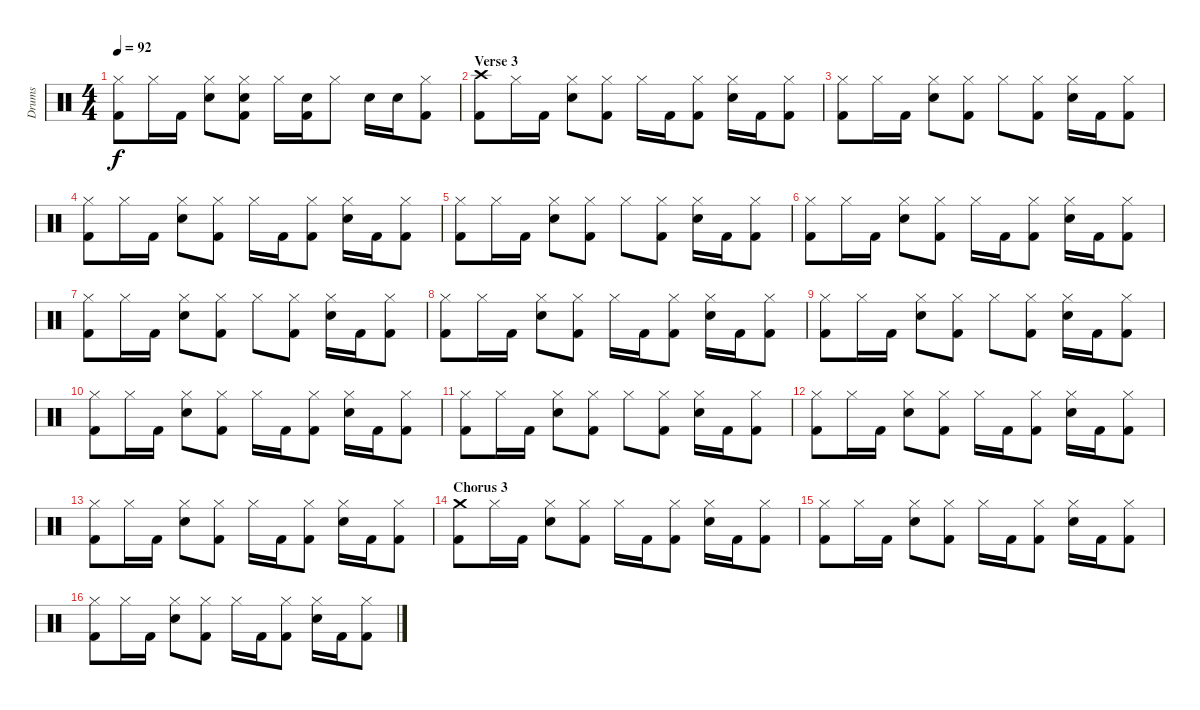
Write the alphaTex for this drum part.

\track ("Drums" "Drums") {instrument percussion}
\staff {score}
\articulation defaults
\ts (4 4)
\tempo 92
\clef neutral
\ks c
("Hi-Hat (closed)" "Kick (hit) 2").8{dy f} "Hi-Hat (closed)".16 "Kick (hit) 2".16 ("Hi-Hat (closed)" "Electric Snare (hit)").8 ("Hi-Hat (closed)" "Electric Snare (hit)" "Kick (hit) 2").8 "Hi-Hat (closed)".16 ("Electric Snare (hit)" "Kick (hit) 2").16 "Hi-Hat (closed)".8 "Electric Snare (hit)".16 "Electric Snare (hit)".16 ("Hi-Hat (closed)" "Kick (hit) 2").8 |
\section ("" "Verse 3")
("Crash high (hit)" "Kick (hit) 2").8 "Hi-Hat (closed)".16 "Kick (hit) 2".16 ("Hi-Hat (closed)" "Electric Snare (hit)").8 ("Hi-Hat (closed)" "Kick (hit) 2").8 "Hi-Hat (closed)".16 "Kick (hit) 2".16 ("Hi-Hat (closed)" "Kick (hit) 2").8 ("Hi-Hat (closed)" "Electric Snare (hit)").16 "Kick (hit) 2".16 ("Hi-Hat (closed)" "Kick (hit) 2").8 |
("Hi-Hat (closed)" "Kick (hit) 2").8 "Hi-Hat (closed)".16 "Kick (hit) 2".16 ("Hi-Hat (closed)" "Electric Snare (hit)").8 ("Hi-Hat (closed)" "Kick (hit) 2").8 "Hi-Hat (closed)".8 ("Hi-Hat (closed)" "Kick (hit) 2").8 ("Hi-Hat (closed)" "Electric Snare (hit)").16 "Kick (hit) 2".16 ("Hi-Hat (closed)" "Kick (hit) 2").8 |
("Hi-Hat (closed)" "Kick (hit) 2").8 "Hi-Hat (closed)".16 "Kick (hit) 2".16 ("Hi-Hat (closed)" "Electric Snare (hit)").8 ("Hi-Hat (closed)" "Kick (hit) 2").8 "Hi-Hat (closed)".16 "Kick (hit) 2".16 ("Hi-Hat (closed)" "Kick (hit) 2").8 ("Hi-Hat (closed)" "Electric Snare (hit)").16 "Kick (hit) 2".16 ("Hi-Hat (closed)" "Kick (hit) 2").8 |
("Hi-Hat (closed)" "Kick (hit) 2").8 "Hi-Hat (closed)".16 "Kick (hit) 2".16 ("Hi-Hat (closed)" "Electric Snare (hit)").8 ("Hi-Hat (closed)" "Kick (hit) 2").8 "Hi-Hat (closed)".8 ("Hi-Hat (closed)" "Kick (hit) 2").8 ("Hi-Hat (closed)" "Electric Snare (hit)").16 "Kick (hit) 2".16 ("Hi-Hat (closed)" "Kick (hit) 2").8 |
("Hi-Hat (closed)" "Kick (hit) 2").8 "Hi-Hat (closed)".16 "Kick (hit) 2".16 ("Hi-Hat (closed)" "Electric Snare (hit)").8 ("Hi-Hat (closed)" "Kick (hit) 2").8 "Hi-Hat (closed)".16 "Kick (hit) 2".16 ("Hi-Hat (closed)" "Kick (hit) 2").8 ("Hi-Hat (closed)" "Electric Snare (hit)").16 "Kick (hit) 2".16 ("Hi-Hat (closed)" "Kick (hit) 2").8 |
("Hi-Hat (closed)" "Kick (hit) 2").8 "Hi-Hat (closed)".16 "Kick (hit) 2".16 ("Hi-Hat (closed)" "Electric Snare (hit)").8 ("Hi-Hat (closed)" "Kick (hit) 2").8 "Hi-Hat (closed)".8 ("Hi-Hat (closed)" "Kick (hit) 2").8 ("Hi-Hat (closed)" "Electric Snare (hit)").16 "Kick (hit) 2".16 ("Hi-Hat (closed)" "Kick (hit) 2").8 |
("Hi-Hat (closed)" "Kick (hit) 2").8 "Hi-Hat (closed)".16 "Kick (hit) 2".16 ("Hi-Hat (closed)" "Electric Snare (hit)").8 ("Hi-Hat (closed)" "Kick (hit) 2").8 "Hi-Hat (closed)".16 "Kick (hit) 2".16 ("Hi-Hat (closed)" "Kick (hit) 2").8 ("Hi-Hat (closed)" "Electric Snare (hit)").16 "Kick (hit) 2".16 ("Hi-Hat (closed)" "Kick (hit) 2").8 |
("Hi-Hat (closed)" "Kick (hit) 2").8 "Hi-Hat (closed)".16 "Kick (hit) 2".16 ("Hi-Hat (closed)" "Electric Snare (hit)").8 ("Hi-Hat (closed)" "Kick (hit) 2").8 "Hi-Hat (closed)".8 ("Hi-Hat (closed)" "Kick (hit) 2").8 ("Hi-Hat (closed)" "Electric Snare (hit)").16 "Kick (hit) 2".16 ("Hi-Hat (closed)" "Kick (hit) 2").8 |
("Hi-Hat (closed)" "Kick (hit) 2").8 "Hi-Hat (closed)".16 "Kick (hit) 2".16 ("Hi-Hat (closed)" "Electric Snare (hit)").8 ("Hi-Hat (closed)" "Kick (hit) 2").8 "Hi-Hat (closed)".16 "Kick (hit) 2".16 ("Hi-Hat (closed)" "Kick (hit) 2").8 ("Hi-Hat (closed)" "Electric Snare (hit)").16 "Kick (hit) 2".16 ("Hi-Hat (closed)" "Kick (hit) 2").8 |
("Hi-Hat (closed)" "Kick (hit) 2").8 "Hi-Hat (closed)".16 "Kick (hit) 2".16 ("Hi-Hat (closed)" "Electric Snare (hit)").8 ("Hi-Hat (closed)" "Kick (hit) 2").8 "Hi-Hat (closed)".8 ("Hi-Hat (closed)" "Kick (hit) 2").8 ("Hi-Hat (closed)" "Electric Snare (hit)").16 "Kick (hit) 2".16 ("Hi-Hat (closed)" "Kick (hit) 2").8 |
("Hi-Hat (closed)" "Kick (hit) 2").8 "Hi-Hat (closed)".16 "Kick (hit) 2".16 ("Hi-Hat (closed)" "Electric Snare (hit)").8 ("Hi-Hat (closed)" "Kick (hit) 2").8 "Hi-Hat (closed)".16 "Kick (hit) 2".16 ("Hi-Hat (closed)" "Kick (hit) 2").8 ("Hi-Hat (closed)" "Electric Snare (hit)").16 "Kick (hit) 2".16 ("Hi-Hat (closed)" "Kick (hit) 2").8 |
("Hi-Hat (closed)" "Kick (hit) 2").8 "Hi-Hat (closed)".16 "Kick (hit) 2".16 ("Hi-Hat (closed)" "Electric Snare (hit)").8 ("Hi-Hat (closed)" "Kick (hit) 2").8 "Hi-Hat (closed)".16 "Kick (hit) 2".16 ("Hi-Hat (closed)" "Kick (hit) 2").8 ("Hi-Hat (closed)" "Electric Snare (hit)").16 "Kick (hit) 2".16 ("Hi-Hat (closed)" "Kick (hit) 2").8 |
\section ("" "Chorus 3")
("Crash medium (hit)" "Kick (hit) 2").8 "Hi-Hat (closed)".16 "Kick (hit) 2".16 ("Hi-Hat (closed)" "Electric Snare (hit)").8 ("Hi-Hat (closed)" "Kick (hit) 2").8 "Hi-Hat (closed)".16 "Kick (hit) 2".16 ("Hi-Hat (closed)" "Kick (hit) 2").8 ("Hi-Hat (closed)" "Electric Snare (hit)").16 "Kick (hit) 2".16 ("Hi-Hat (closed)" "Kick (hit) 2").8 |
("Hi-Hat (closed)" "Kick (hit) 2").8 "Hi-Hat (closed)".16 "Kick (hit) 2".16 ("Hi-Hat (closed)" "Electric Snare (hit)").8 ("Hi-Hat (closed)" "Kick (hit) 2").8 "Hi-Hat (closed)".16 "Kick (hit) 2".16 ("Hi-Hat (closed)" "Kick (hit) 2").8 ("Hi-Hat (closed)" "Electric Snare (hit)").16 "Kick (hit) 2".16 ("Hi-Hat (closed)" "Kick (hit) 2").8 |
("Hi-Hat (closed)" "Kick (hit) 2").8 "Hi-Hat (closed)".16 "Kick (hit) 2".16 ("Hi-Hat (closed)" "Electric Snare (hit)").8 ("Hi-Hat (closed)" "Kick (hit) 2").8 "Hi-Hat (closed)".16 "Kick (hit) 2".16 ("Hi-Hat (closed)" "Kick (hit) 2").8 ("Hi-Hat (closed)" "Electric Snare (hit)").16 "Kick (hit) 2".16 ("Hi-Hat (closed)" "Kick (hit) 2").8
